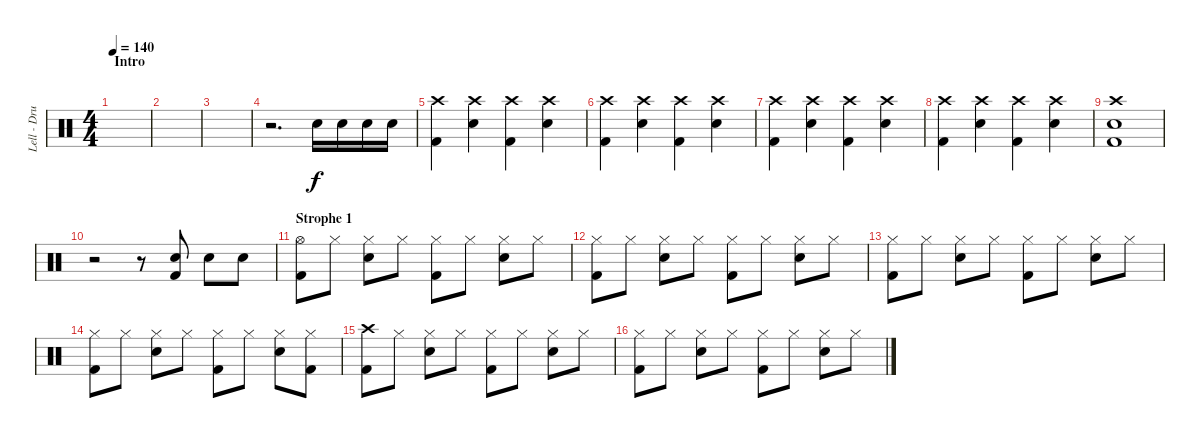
\track ("Lell - Drums" "Lell - Dru") {instrument percussion}
\staff {score}
\articulation defaults
\ts (4 4)
\section ("" "Intro")
\tempo 140
\clef neutral
\ks c
|
|
|
r.2{d} "Snare (hit) 2".16 "Snare (hit) 2".16 "Snare (hit) 2".16 "Snare (hit) 2".16 |
("Crash high (hit)" "Kick (hit) 2").4 ("Crash high (hit)" "Snare (hit) 2").4 ("Crash high (hit)" "Kick (hit) 2").4 ("Crash high (hit)" "Snare (hit) 2").4 |
("Crash high (hit)" "Kick (hit) 2").4 ("Crash high (hit)" "Snare (hit) 2").4 ("Crash high (hit)" "Kick (hit) 2").4 ("Crash high (hit)" "Snare (hit) 2").4 |
("Crash high (hit)" "Kick (hit) 2").4 ("Crash high (hit)" "Snare (hit) 2").4 ("Crash high (hit)" "Kick (hit) 2").4 ("Crash high (hit)" "Snare (hit) 2").4 |
("Crash high (hit)" "Kick (hit) 2").4 ("Crash high (hit)" "Snare (hit) 2").4 ("Crash high (hit)" "Kick (hit) 2").4 ("Crash high (hit)" "Snare (hit) 2").4 |
("Crash high (hit)" "Snare (hit) 2" "Kick (hit) 2").1 |
r.2 r.8 ("Snare (hit) 2" "Kick (hit) 2").8 "Snare (hit) 2".8 "Snare (hit) 2".8 |
\section ("" "Strophe 1")
("Hi-Hat (open)" "Kick (hit) 2").8 "Hi-Hat (closed)".8 ("Hi-Hat (closed)" "Snare (hit) 2").8 "Hi-Hat (closed)".8 ("Hi-Hat (closed)" "Kick (hit) 2").8 "Hi-Hat (closed)".8 ("Hi-Hat (closed)" "Snare (hit) 2").8 "Hi-Hat (closed)".8 |
("Hi-Hat (closed)" "Kick (hit) 2").8 "Hi-Hat (closed)".8 ("Hi-Hat (closed)" "Snare (hit) 2").8 "Hi-Hat (closed)".8 ("Hi-Hat (closed)" "Kick (hit) 2").8 "Hi-Hat (closed)".8 ("Hi-Hat (closed)" "Snare (hit) 2").8 "Hi-Hat (closed)".8 |
("Hi-Hat (closed)" "Kick (hit) 2").8 "Hi-Hat (closed)".8 ("Hi-Hat (closed)" "Snare (hit) 2").8 "Hi-Hat (closed)".8 ("Hi-Hat (closed)" "Kick (hit) 2").8 "Hi-Hat (closed)".8 ("Hi-Hat (closed)" "Snare (hit) 2").8 "Hi-Hat (closed)".8 |
("Hi-Hat (closed)" "Kick (hit) 2").8 "Hi-Hat (closed)".8 ("Hi-Hat (closed)" "Snare (hit) 2").8 "Hi-Hat (closed)".8 ("Hi-Hat (closed)" "Kick (hit) 2").8 "Hi-Hat (closed)".8 ("Hi-Hat (closed)" "Snare (hit) 2").8 ("Hi-Hat (closed)" "Kick (hit) 2").8 |
("Crash high (hit)" "Kick (hit) 2").8 "Hi-Hat (closed)".8 ("Hi-Hat (closed)" "Snare (hit) 2").8 "Hi-Hat (closed)".8 ("Hi-Hat (closed)" "Kick (hit) 2").8 "Hi-Hat (closed)".8 ("Hi-Hat (closed)" "Snare (hit) 2").8 "Hi-Hat (closed)".8 |
("Hi-Hat (closed)" "Kick (hit) 2").8 "Hi-Hat (closed)".8 ("Hi-Hat (closed)" "Snare (hit) 2").8 "Hi-Hat (closed)".8 ("Hi-Hat (closed)" "Kick (hit) 2").8 "Hi-Hat (closed)".8 ("Hi-Hat (closed)" "Snare (hit) 2").8 "Hi-Hat (closed)".8
